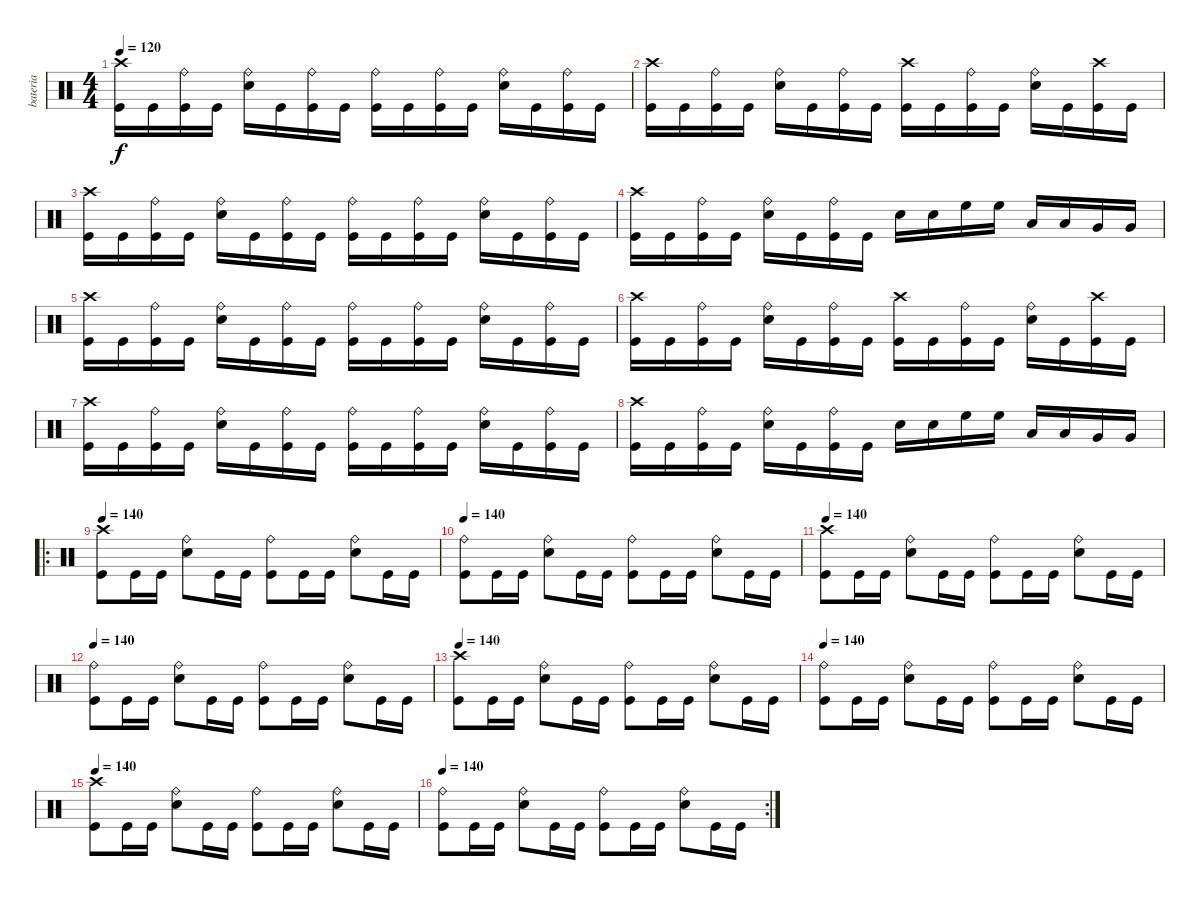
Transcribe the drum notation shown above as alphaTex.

\track ("bateria" "bateria") {instrument percussion}
\staff {score}
\articulation defaults
\ts (4 4)
\tempo 120
\clef neutral
\ks c
("Crash high (hit)" "Kick (hit)").16{dy f} "Kick (hit)".16 ("Ride (bell)" "Kick (hit)").16 "Kick (hit)".16 ("Ride (bell)" "Snare (hit) 2").16 "Kick (hit)".16 ("Ride (bell)" "Kick (hit)").16 "Kick (hit)".16 ("Ride (bell)" "Kick (hit)").16 "Kick (hit)".16 ("Ride (bell)" "Kick (hit)").16 "Kick (hit)".16 ("Ride (bell)" "Snare (hit) 2").16 "Kick (hit)".16 ("Ride (bell)" "Kick (hit)").16 "Kick (hit)".16 |
("Crash high (hit)" "Kick (hit)").16 "Kick (hit)".16 ("Ride (bell)" "Kick (hit)").16 "Kick (hit)".16 ("Ride (bell)" "Snare (hit) 2").16 "Kick (hit)".16 ("Ride (bell)" "Kick (hit)").16 "Kick (hit)".16 ("Crash high (hit)" "Kick (hit)").16 "Kick (hit)".16 ("Ride (bell)" "Kick (hit)").16 "Kick (hit)".16 ("Ride (bell)" "Snare (hit) 2").16 "Kick (hit)".16 ("Crash high (hit)" "Kick (hit)").16 "Kick (hit)".16 |
("Crash high (hit)" "Kick (hit)").16 "Kick (hit)".16 ("Ride (bell)" "Kick (hit)").16 "Kick (hit)".16 ("Ride (bell)" "Snare (hit) 2").16 "Kick (hit)".16 ("Ride (bell)" "Kick (hit)").16 "Kick (hit)".16 ("Ride (bell)" "Kick (hit)").16 "Kick (hit)".16 ("Ride (bell)" "Kick (hit)").16 "Kick (hit)".16 ("Ride (bell)" "Snare (hit) 2").16 "Kick (hit)".16 ("Ride (bell)" "Kick (hit)").16 "Kick (hit)".16 |
("Crash high (hit)" "Kick (hit)").16 "Kick (hit)".16 ("Ride (bell)" "Kick (hit)").16 "Kick (hit)".16 ("Ride (bell)" "Snare (hit) 2").16 "Kick (hit)".16 ("Ride (bell)" "Kick (hit)").16 "Kick (hit)".16 "Electric Snare (hit)".16 "Electric Snare (hit)".16 "High Floor Tom (hit)".16 "High Floor Tom (hit)".16 "Low Tom (hit)".16 "Low Tom (hit)".16 "Very Low Tom (hit)".16 "Very Low Tom (hit)".16 |
("Crash high (hit)" "Kick (hit)").16 "Kick (hit)".16 ("Ride (bell)" "Kick (hit)").16 "Kick (hit)".16 ("Ride (bell)" "Snare (hit) 2").16 "Kick (hit)".16 ("Ride (bell)" "Kick (hit)").16 "Kick (hit)".16 ("Ride (bell)" "Kick (hit)").16 "Kick (hit)".16 ("Ride (bell)" "Kick (hit)").16 "Kick (hit)".16 ("Ride (bell)" "Snare (hit) 2").16 "Kick (hit)".16 ("Ride (bell)" "Kick (hit)").16 "Kick (hit)".16 |
("Crash high (hit)" "Kick (hit)").16 "Kick (hit)".16 ("Ride (bell)" "Kick (hit)").16 "Kick (hit)".16 ("Ride (bell)" "Snare (hit) 2").16 "Kick (hit)".16 ("Ride (bell)" "Kick (hit)").16 "Kick (hit)".16 ("Crash high (hit)" "Kick (hit)").16 "Kick (hit)".16 ("Ride (bell)" "Kick (hit)").16 "Kick (hit)".16 ("Ride (bell)" "Snare (hit) 2").16 "Kick (hit)".16 ("Crash high (hit)" "Kick (hit)").16 "Kick (hit)".16 |
("Crash high (hit)" "Kick (hit)").16 "Kick (hit)".16 ("Ride (bell)" "Kick (hit)").16 "Kick (hit)".16 ("Ride (bell)" "Snare (hit) 2").16 "Kick (hit)".16 ("Ride (bell)" "Kick (hit)").16 "Kick (hit)".16 ("Ride (bell)" "Kick (hit)").16 "Kick (hit)".16 ("Ride (bell)" "Kick (hit)").16 "Kick (hit)".16 ("Ride (bell)" "Snare (hit) 2").16 "Kick (hit)".16 ("Ride (bell)" "Kick (hit)").16 "Kick (hit)".16 |
("Crash high (hit)" "Kick (hit)").16 "Kick (hit)".16 ("Ride (bell)" "Kick (hit)").16 "Kick (hit)".16 ("Ride (bell)" "Snare (hit) 2").16 "Kick (hit)".16 ("Ride (bell)" "Kick (hit)").16 "Kick (hit)".16 "Electric Snare (hit)".16 "Electric Snare (hit)".16 "High Floor Tom (hit)".16 "High Floor Tom (hit)".16 "Low Tom (hit)".16 "Low Tom (hit)".16 "Very Low Tom (hit)".16 "Very Low Tom (hit)".16 |
\ro
\tempo 140
("Crash high (hit)" "Kick (hit)").8 "Kick (hit)".16 "Kick (hit)".16 ("Ride (bell)" "Electric Snare (hit)").8 "Kick (hit)".16 "Kick (hit)".16 ("Ride (bell)" "Kick (hit)").8 "Kick (hit)".16 "Kick (hit)".16 ("Ride (bell)" "Electric Snare (hit)").8 "Kick (hit)".16 "Kick (hit)".16 |
\tempo 140
("Ride (bell)" "Kick (hit)").8 "Kick (hit)".16 "Kick (hit)".16 ("Ride (bell)" "Electric Snare (hit)").8 "Kick (hit)".16 "Kick (hit)".16 ("Ride (bell)" "Kick (hit)").8 "Kick (hit)".16 "Kick (hit)".16 ("Ride (bell)" "Electric Snare (hit)").8 "Kick (hit)".16 "Kick (hit)".16 |
\tempo 140
("Crash high (hit)" "Kick (hit)").8 "Kick (hit)".16 "Kick (hit)".16 ("Ride (bell)" "Electric Snare (hit)").8 "Kick (hit)".16 "Kick (hit)".16 ("Ride (bell)" "Kick (hit)").8 "Kick (hit)".16 "Kick (hit)".16 ("Ride (bell)" "Electric Snare (hit)").8 "Kick (hit)".16 "Kick (hit)".16 |
\tempo 140
("Ride (bell)" "Kick (hit)").8 "Kick (hit)".16 "Kick (hit)".16 ("Ride (bell)" "Electric Snare (hit)").8 "Kick (hit)".16 "Kick (hit)".16 ("Ride (bell)" "Kick (hit)").8 "Kick (hit)".16 "Kick (hit)".16 ("Ride (bell)" "Electric Snare (hit)").8 "Kick (hit)".16 "Kick (hit)".16 |
\tempo 140
("Crash high (hit)" "Kick (hit)").8 "Kick (hit)".16 "Kick (hit)".16 ("Ride (bell)" "Electric Snare (hit)").8 "Kick (hit)".16 "Kick (hit)".16 ("Ride (bell)" "Kick (hit)").8 "Kick (hit)".16 "Kick (hit)".16 ("Ride (bell)" "Electric Snare (hit)").8 "Kick (hit)".16 "Kick (hit)".16 |
\tempo 140
("Ride (bell)" "Kick (hit)").8 "Kick (hit)".16 "Kick (hit)".16 ("Ride (bell)" "Electric Snare (hit)").8 "Kick (hit)".16 "Kick (hit)".16 ("Ride (bell)" "Kick (hit)").8 "Kick (hit)".16 "Kick (hit)".16 ("Ride (bell)" "Electric Snare (hit)").8 "Kick (hit)".16 "Kick (hit)".16 |
\tempo 140
("Crash high (hit)" "Kick (hit)").8 "Kick (hit)".16 "Kick (hit)".16 ("Ride (bell)" "Electric Snare (hit)").8 "Kick (hit)".16 "Kick (hit)".16 ("Ride (bell)" "Kick (hit)").8 "Kick (hit)".16 "Kick (hit)".16 ("Ride (bell)" "Electric Snare (hit)").8 "Kick (hit)".16 "Kick (hit)".16 |
\rc 2
\tempo 140
("Ride (bell)" "Kick (hit)").8 "Kick (hit)".16 "Kick (hit)".16 ("Ride (bell)" "Electric Snare (hit)").8 "Kick (hit)".16 "Kick (hit)".16 ("Ride (bell)" "Kick (hit)").8 "Kick (hit)".16 "Kick (hit)".16 ("Ride (bell)" "Electric Snare (hit)").8 "Kick (hit)".16 "Kick (hit)".16
